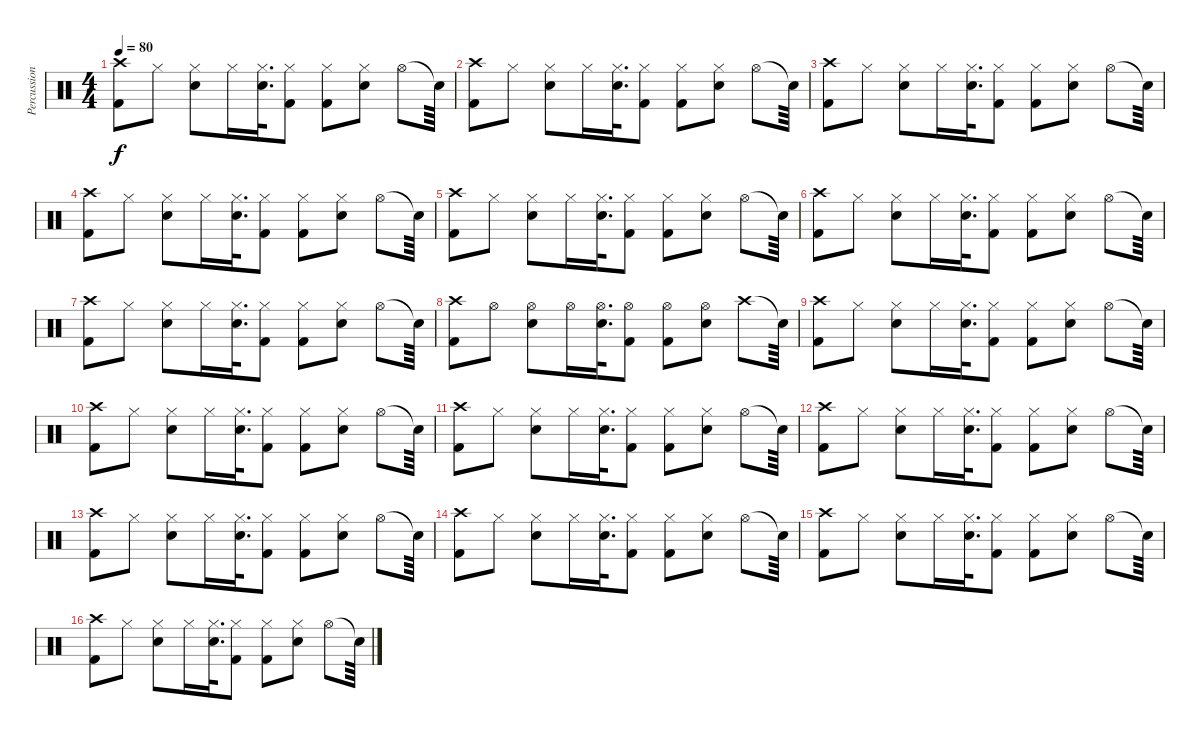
\track ("Percussion" "Percussion") {instrument percussion}
\staff {score}
\articulation defaults
\ts (4 4)
\tempo 80
\clef neutral
\ks c
("Crash high (hit)" "Kick (hit) 2").8{dy f} "Hi-Hat (closed)".8 ("Hi-Hat (closed)" "Snare (hit) 2").8 "Hi-Hat (closed)".16 ("Hi-Hat (closed)" "Snare (hit) 2").32{d} ("Hi-Hat (closed)" "Kick (hit) 2").8 ("Hi-Hat (closed)" "Kick (hit) 2").8 ("Hi-Hat (closed)" "Snare (hit) 2").8 "Hi-Hat (open)".8 "Snare (hit)"{t}.64 |
("Crash high (hit)" "Kick (hit) 2").8 "Hi-Hat (closed)".8 ("Hi-Hat (closed)" "Snare (hit) 2").8 "Hi-Hat (closed)".16 ("Hi-Hat (closed)" "Snare (hit) 2").32{d} ("Hi-Hat (closed)" "Kick (hit) 2").8 ("Hi-Hat (closed)" "Kick (hit) 2").8 ("Hi-Hat (closed)" "Snare (hit) 2").8 "Hi-Hat (open)".8 "Snare (hit)"{t}.64 |
("Crash high (hit)" "Kick (hit) 2").8 "Hi-Hat (closed)".8 ("Hi-Hat (closed)" "Snare (hit) 2").8 "Hi-Hat (closed)".16 ("Hi-Hat (closed)" "Snare (hit) 2").32{d} ("Hi-Hat (closed)" "Kick (hit) 2").8 ("Hi-Hat (closed)" "Kick (hit) 2").8 ("Hi-Hat (closed)" "Snare (hit) 2").8 "Hi-Hat (open)".8 "Snare (hit)"{t}.64 |
("Crash high (hit)" "Kick (hit) 2").8 "Hi-Hat (closed)".8 ("Hi-Hat (closed)" "Snare (hit) 2").8 "Hi-Hat (closed)".16 ("Hi-Hat (closed)" "Snare (hit) 2").32{d} ("Hi-Hat (closed)" "Kick (hit) 2").8 ("Hi-Hat (closed)" "Kick (hit) 2").8 ("Hi-Hat (closed)" "Snare (hit) 2").8 "Hi-Hat (open)".8 "Snare (hit)"{t}.64 |
("Crash high (hit)" "Kick (hit) 2").8 "Hi-Hat (closed)".8 ("Hi-Hat (closed)" "Snare (hit) 2").8 "Hi-Hat (closed)".16 ("Hi-Hat (closed)" "Snare (hit) 2").32{d} ("Hi-Hat (closed)" "Kick (hit) 2").8 ("Hi-Hat (closed)" "Kick (hit) 2").8 ("Hi-Hat (closed)" "Snare (hit) 2").8 "Hi-Hat (open)".8 "Snare (hit)"{t}.64 |
("Crash high (hit)" "Kick (hit) 2").8 "Hi-Hat (closed)".8 ("Hi-Hat (closed)" "Snare (hit) 2").8 "Hi-Hat (closed)".16 ("Hi-Hat (closed)" "Snare (hit) 2").32{d} ("Hi-Hat (closed)" "Kick (hit) 2").8 ("Hi-Hat (closed)" "Kick (hit) 2").8 ("Hi-Hat (closed)" "Snare (hit) 2").8 "Hi-Hat (open)".8 "Snare (hit)"{t}.64 |
("Crash high (hit)" "Kick (hit) 2").8 "Hi-Hat (closed)".8 ("Hi-Hat (closed)" "Snare (hit) 2").8 "Hi-Hat (closed)".16 ("Hi-Hat (closed)" "Snare (hit) 2").32{d} ("Hi-Hat (closed)" "Kick (hit) 2").8 ("Hi-Hat (closed)" "Kick (hit) 2").8 ("Hi-Hat (closed)" "Snare (hit) 2").8 "Hi-Hat (open)".8 "Snare (hit)"{t}.64 |
("Crash high (hit)" "Kick (hit) 2").8 "Hi-Hat (open)".8 ("Hi-Hat (open)" "Snare (hit) 2").8 "Hi-Hat (open)".16 ("Hi-Hat (open)" "Snare (hit) 2").32{d} ("Hi-Hat (open)" "Kick (hit) 2").8 ("Hi-Hat (open)" "Kick (hit) 2").8 ("Hi-Hat (open)" "Snare (hit) 2").8 "Crash high (hit)".8 "Snare (hit)"{t}.64 |
("Crash high (hit)" "Kick (hit) 2").8 "Hi-Hat (closed)".8 ("Hi-Hat (closed)" "Snare (hit) 2").8 "Hi-Hat (closed)".16 ("Hi-Hat (closed)" "Snare (hit) 2").32{d} ("Hi-Hat (closed)" "Kick (hit) 2").8 ("Hi-Hat (closed)" "Kick (hit) 2").8 ("Hi-Hat (closed)" "Snare (hit) 2").8 "Hi-Hat (open)".8 "Snare (hit)"{t}.64 |
("Crash high (hit)" "Kick (hit) 2").8 "Hi-Hat (closed)".8 ("Hi-Hat (closed)" "Snare (hit) 2").8 "Hi-Hat (closed)".16 ("Hi-Hat (closed)" "Snare (hit) 2").32{d} ("Hi-Hat (closed)" "Kick (hit) 2").8 ("Hi-Hat (closed)" "Kick (hit) 2").8 ("Hi-Hat (closed)" "Snare (hit) 2").8 "Hi-Hat (open)".8 "Snare (hit)"{t}.64 |
("Crash high (hit)" "Kick (hit) 2").8 "Hi-Hat (closed)".8 ("Hi-Hat (closed)" "Snare (hit) 2").8 "Hi-Hat (closed)".16 ("Hi-Hat (closed)" "Snare (hit) 2").32{d} ("Hi-Hat (closed)" "Kick (hit) 2").8 ("Hi-Hat (closed)" "Kick (hit) 2").8 ("Hi-Hat (closed)" "Snare (hit) 2").8 "Hi-Hat (open)".8 "Snare (hit)"{t}.64 |
("Crash high (hit)" "Kick (hit) 2").8 "Hi-Hat (closed)".8 ("Hi-Hat (closed)" "Snare (hit) 2").8 "Hi-Hat (closed)".16 ("Hi-Hat (closed)" "Snare (hit) 2").32{d} ("Hi-Hat (closed)" "Kick (hit) 2").8 ("Hi-Hat (closed)" "Kick (hit) 2").8 ("Hi-Hat (closed)" "Snare (hit) 2").8 "Hi-Hat (open)".8 "Snare (hit)"{t}.64 |
("Crash high (hit)" "Kick (hit) 2").8 "Hi-Hat (closed)".8 ("Hi-Hat (closed)" "Snare (hit) 2").8 "Hi-Hat (closed)".16 ("Hi-Hat (closed)" "Snare (hit) 2").32{d} ("Hi-Hat (closed)" "Kick (hit) 2").8 ("Hi-Hat (closed)" "Kick (hit) 2").8 ("Hi-Hat (closed)" "Snare (hit) 2").8 "Hi-Hat (open)".8 "Snare (hit)"{t}.64 |
("Crash high (hit)" "Kick (hit) 2").8 "Hi-Hat (closed)".8 ("Hi-Hat (closed)" "Snare (hit) 2").8 "Hi-Hat (closed)".16 ("Hi-Hat (closed)" "Snare (hit) 2").32{d} ("Hi-Hat (closed)" "Kick (hit) 2").8 ("Hi-Hat (closed)" "Kick (hit) 2").8 ("Hi-Hat (closed)" "Snare (hit) 2").8 "Hi-Hat (open)".8 "Snare (hit)"{t}.64 |
("Crash high (hit)" "Kick (hit) 2").8 "Hi-Hat (closed)".8 ("Hi-Hat (closed)" "Snare (hit) 2").8 "Hi-Hat (closed)".16 ("Hi-Hat (closed)" "Snare (hit) 2").32{d} ("Hi-Hat (closed)" "Kick (hit) 2").8 ("Hi-Hat (closed)" "Kick (hit) 2").8 ("Hi-Hat (closed)" "Snare (hit) 2").8 "Hi-Hat (open)".8 "Snare (hit)"{t}.64 |
("Crash high (hit)" "Kick (hit) 2").8 "Hi-Hat (closed)".8 ("Hi-Hat (closed)" "Snare (hit) 2").8 "Hi-Hat (closed)".16 ("Hi-Hat (closed)" "Snare (hit) 2").32{d} ("Hi-Hat (closed)" "Kick (hit) 2").8 ("Hi-Hat (closed)" "Kick (hit) 2").8 ("Hi-Hat (closed)" "Snare (hit) 2").8 "Hi-Hat (open)".8 "Snare (hit)"{t}.64
